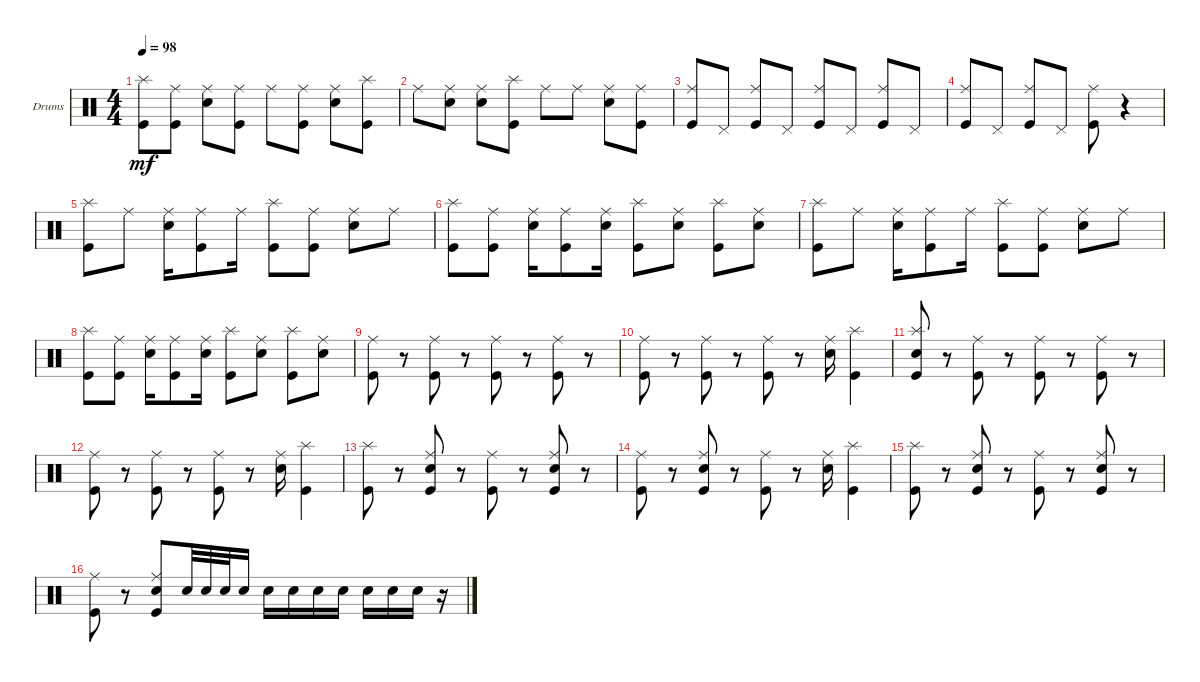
\defaultSystemsLayout 4
\bracketExtendMode groupsimilarinstruments
\firstSystemTrackNameOrientation horizontal
\otherSystemsTrackNameOrientation horizontal
\track ("Frank Fontsere" "Drums") {instrument percussion}
\staff {score}
\articulation defaults
\ts (4 4)
\tempo 98
\clef neutral
\ks c
("Kick (hit)" "Splash (hit)").8{dy mf} ("Ride (middle)" "Kick (hit)").8 ("Ride (middle)" "Snare (hit) 2").8 ("Kick (hit)" "Ride (middle)").8 "Ride (middle)".8 ("Ride (middle)" "Kick (hit)").8 ("Ride (middle)" "Snare (hit) 2").8 ("Kick (hit)" "Splash (hit)").8 |
"Ride (middle)".8 ("Snare (hit) 2" "Ride (middle)").8 ("Ride (middle)" "Snare (hit) 2").8 ("Splash (hit)" "Kick (hit)").8 "Ride (middle)".8 "Ride (middle)".8 ("Snare (hit) 2" "Ride (middle)").8 ("Kick (hit)" "Ride (middle)").8 |
("Kick (hit)" "Ride (middle)").8 "Pedal Hi-Hat (hit)".8 ("Ride (middle)" "Kick (hit)").8 "Pedal Hi-Hat (hit)".8 ("Ride (middle)" "Kick (hit)").8 "Pedal Hi-Hat (hit)".8 ("Kick (hit)" "Ride (middle)").8 "Pedal Hi-Hat (hit)".8 |
("Kick (hit)" "Ride (middle)").8 "Pedal Hi-Hat (hit)".8 ("Ride (middle)" "Kick (hit)").8 "Pedal Hi-Hat (hit)".8 ("Ride (middle)" "Kick (hit)").8 r.4 |
("Kick (hit)" "Splash (hit)").8 "Ride (middle)".8 ("Ride (middle)" "Snare (hit) 2").16 ("Ride (middle)" "Kick (hit)").8 "Ride (middle)".16 ("Kick (hit)" "Splash (hit)").8 ("Ride (middle)" "Kick (hit)").8 ("Snare (hit) 2" "Ride (middle)").8 "Ride (middle)".8 |
("Kick (hit)" "Splash (hit)").8 ("Kick (hit)" "Ride (middle)").8 ("Snare (hit) 2" "Ride (middle)").16 ("Kick (hit)" "Ride (middle)").8 ("Ride (middle)" "Snare (hit) 2").16 ("Kick (hit)" "Splash (hit)").8 ("Snare (hit) 2" "Ride (middle)").8 ("Kick (hit)" "Splash (hit)").8 ("Snare (hit) 2" "Ride (middle)").8 |
("Kick (hit)" "Splash (hit)").8 "Ride (middle)".8 ("Ride (middle)" "Snare (hit) 2").16 ("Ride (middle)" "Kick (hit)").8 "Ride (middle)".16 ("Kick (hit)" "Splash (hit)").8 ("Ride (middle)" "Kick (hit)").8 ("Snare (hit) 2" "Ride (middle)").8 "Ride (middle)".8 |
("Kick (hit)" "Splash (hit)").8 ("Kick (hit)" "Ride (middle)").8 ("Snare (hit) 2" "Ride (middle)").16 ("Kick (hit)" "Ride (middle)").8 ("Ride (middle)" "Snare (hit) 2").16 ("Kick (hit)" "Splash (hit)").8 ("Snare (hit) 2" "Ride (middle)").8 ("Kick (hit)" "Splash (hit)").8 ("Snare (hit) 2" "Ride (middle)").8 |
("Kick (hit)" "Ride (middle)").8 r.8 ("Kick (hit)" "Ride (middle)").8 r.8 ("Kick (hit)" "Ride (middle)").8 r.8 ("Kick (hit)" "Ride (middle)").8 r.8 |
("Kick (hit)" "Ride (middle)").8 r.8 ("Kick (hit)" "Ride (middle)").8 r.8 ("Kick (hit)" "Ride (middle)").8 r.8 ("Snare (hit) 2" "Ride (middle)").16 ("Kick (hit)" "Splash (hit)").4 |
("Kick (hit)" "Snare (hit) 2" "Splash (hit)").8 r.8 ("Kick (hit)" "Ride (middle)").8 r.8 ("Ride (middle)" "Kick (hit)").8 r.8 ("Ride (middle)" "Kick (hit)").8 r.8 |
("Kick (hit)" "Ride (middle)").8 r.8 ("Kick (hit)" "Ride (middle)").8 r.8 ("Kick (hit)" "Ride (middle)").8 r.8 ("Snare (hit) 2" "Ride (middle)").16 ("Kick (hit)" "Splash (hit)").4 |
("Kick (hit)" "Splash (hit)").8 r.8 ("Kick (hit)" "Ride (middle)" "Snare (hit) 2").8 r.8 ("Ride (middle)" "Kick (hit)").8 r.8 ("Ride (middle)" "Kick (hit)" "Snare (hit) 2").8 r.8 |
("Kick (hit)" "Ride (middle)").8 r.8 ("Kick (hit)" "Ride (middle)" "Snare (hit) 2").8 r.8 ("Kick (hit)" "Ride (middle)").8 r.8 ("Snare (hit) 2" "Ride (middle)").16 ("Kick (hit)" "Splash (hit)").4 |
("Kick (hit)" "Splash (hit)").8 r.8 ("Kick (hit)" "Ride (middle)" "Snare (hit) 2").8 r.8 ("Ride (middle)" "Kick (hit)").8 r.8 ("Ride (middle)" "Kick (hit)" "Snare (hit) 2").8 r.8 |
("Kick (hit)" "Ride (middle)").8 r.8 ("Kick (hit)" "Ride (middle)" "Snare (hit) 2").8 "Snare (hit) 2".32 "Snare (hit) 2".32 "Snare (hit) 2".32 "Snare (hit) 2".16 "Snare (hit) 2".16 "Snare (hit) 2".16 "Snare (hit) 2".16 "Snare (hit) 2".16 "Snare (hit) 2".16 "Snare (hit) 2".16 "Snare (hit) 2".16 r.16
